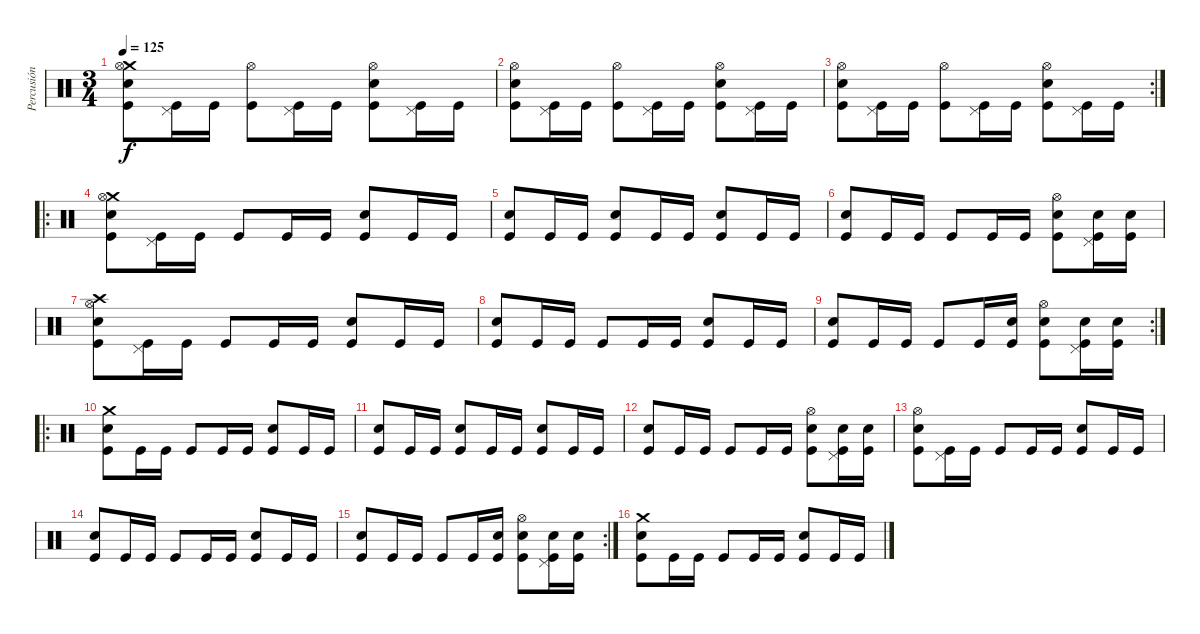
\track ("Percusión" "Percusión") {instrument percussion}
\staff {score}
\articulation defaults
\ts (3 4)
\tempo 125
\clef neutral
\ks c
("Crash medium (hit)" "Electric Snare (hit)" "Kick (hit)" "Hi-Hat (open)").8{dy f} ("Kick (hit)" "Pedal Hi-Hat (hit)").16 "Kick (hit)".16 ("Kick (hit)" "Hi-Hat (open)").8 ("Kick (hit)" "Pedal Hi-Hat (hit)").16 "Kick (hit)".16 ("Electric Snare (hit)" "Kick (hit)" "Hi-Hat (open)").8 ("Kick (hit)" "Pedal Hi-Hat (hit)").16 "Kick (hit)".16 |
("Electric Snare (hit)" "Kick (hit)" "Hi-Hat (open)").8 ("Kick (hit)" "Pedal Hi-Hat (hit)").16 "Kick (hit)".16 ("Kick (hit)" "Hi-Hat (open)").8 ("Kick (hit)" "Pedal Hi-Hat (hit)").16 "Kick (hit)".16 ("Electric Snare (hit)" "Kick (hit)" "Hi-Hat (open)").8 ("Kick (hit)" "Pedal Hi-Hat (hit)").16 "Kick (hit)".16 |
\rc 2
("Electric Snare (hit)" "Kick (hit)" "Hi-Hat (open)").8 ("Kick (hit)" "Pedal Hi-Hat (hit)").16 "Kick (hit)".16 ("Kick (hit)" "Hi-Hat (open)").8 ("Kick (hit)" "Pedal Hi-Hat (hit)").16 "Kick (hit)".16 ("Electric Snare (hit)" "Kick (hit)" "Hi-Hat (open)").8 ("Kick (hit)" "Pedal Hi-Hat (hit)").16 "Kick (hit)".16 |
\ro
("Crash medium (hit)" "Electric Snare (hit)" "Kick (hit)" "Hi-Hat (open)").8 ("Kick (hit)" "Pedal Hi-Hat (hit)").16 "Kick (hit)".16 "Kick (hit)".8 "Kick (hit)".16 "Kick (hit)".16 ("Electric Snare (hit)" "Kick (hit)").8 "Kick (hit)".16 "Kick (hit)".16 |
("Electric Snare (hit)" "Kick (hit)").8 "Kick (hit)".16 "Kick (hit)".16 ("Electric Snare (hit)" "Kick (hit)").8 "Kick (hit)".16 "Kick (hit)".16 ("Electric Snare (hit)" "Kick (hit)").8 "Kick (hit)".16 "Kick (hit)".16 |
("Electric Snare (hit)" "Kick (hit)").8 "Kick (hit)".16 "Kick (hit)".16 "Kick (hit)".8 "Kick (hit)".16 "Kick (hit)".16 ("Electric Snare (hit)" "Kick (hit)" "Hi-Hat (open)").8 ("Electric Snare (hit)" "Kick (hit)" "Pedal Hi-Hat (hit)").16 ("Electric Snare (hit)" "Kick (hit)").16 |
("Crash high (hit)" "Electric Snare (hit)" "Kick (hit)" "Hi-Hat (open)").8 ("Kick (hit)" "Pedal Hi-Hat (hit)").16 "Kick (hit)".16 "Kick (hit)".8 "Kick (hit)".16 "Kick (hit)".16 ("Electric Snare (hit)" "Kick (hit)").8 "Kick (hit)".16 "Kick (hit)".16 |
("Electric Snare (hit)" "Kick (hit)").8 "Kick (hit)".16 "Kick (hit)".16 "Kick (hit)".8 "Kick (hit)".16 "Kick (hit)".16 ("Electric Snare (hit)" "Kick (hit)").8 "Kick (hit)".16 "Kick (hit)".16 |
\rc 2
("Electric Snare (hit)" "Kick (hit)").8 "Kick (hit)".16 "Kick (hit)".16 "Kick (hit)".8 "Kick (hit)".16 ("Electric Snare (hit)" "Kick (hit)").16 ("Electric Snare (hit)" "Kick (hit)" "Hi-Hat (open)").8 ("Electric Snare (hit)" "Kick (hit)" "Pedal Hi-Hat (hit)").16 ("Electric Snare (hit)" "Kick (hit)").16 |
\ro
("Crash medium (hit)" "Electric Snare (hit)" "Kick (hit)").8 "Kick (hit)".16 "Kick (hit)".16 "Kick (hit)".8 "Kick (hit)".16 "Kick (hit)".16 ("Electric Snare (hit)" "Kick (hit)").8 "Kick (hit)".16 "Kick (hit)".16 |
("Electric Snare (hit)" "Kick (hit)").8 "Kick (hit)".16 "Kick (hit)".16 ("Electric Snare (hit)" "Kick (hit)").8 "Kick (hit)".16 "Kick (hit)".16 ("Electric Snare (hit)" "Kick (hit)").8 "Kick (hit)".16 "Kick (hit)".16 |
("Electric Snare (hit)" "Kick (hit)").8 "Kick (hit)".16 "Kick (hit)".16 "Kick (hit)".8 "Kick (hit)".16 "Kick (hit)".16 ("Electric Snare (hit)" "Kick (hit)" "Hi-Hat (open)").8 ("Electric Snare (hit)" "Kick (hit)" "Pedal Hi-Hat (hit)").16 ("Electric Snare (hit)" "Kick (hit)").16 |
("Electric Snare (hit)" "Kick (hit)" "Hi-Hat (open)").8 ("Kick (hit)" "Pedal Hi-Hat (hit)").16 "Kick (hit)".16 "Kick (hit)".8 "Kick (hit)".16 "Kick (hit)".16 ("Electric Snare (hit)" "Kick (hit)").8 "Kick (hit)".16 "Kick (hit)".16 |
("Electric Snare (hit)" "Kick (hit)").8 "Kick (hit)".16 "Kick (hit)".16 "Kick (hit)".8 "Kick (hit)".16 "Kick (hit)".16 ("Electric Snare (hit)" "Kick (hit)").8 "Kick (hit)".16 "Kick (hit)".16 |
\rc 2
("Electric Snare (hit)" "Kick (hit)").8 "Kick (hit)".16 "Kick (hit)".16 "Kick (hit)".8 "Kick (hit)".16 ("Electric Snare (hit)" "Kick (hit)").16 ("Electric Snare (hit)" "Kick (hit)" "Hi-Hat (open)").8 ("Electric Snare (hit)" "Kick (hit)" "Pedal Hi-Hat (hit)").16 ("Electric Snare (hit)" "Kick (hit)").16 |
("Crash medium (hit)" "Electric Snare (hit)" "Kick (hit)").8 "Kick (hit)".16 "Kick (hit)".16 "Kick (hit)".8 "Kick (hit)".16 "Kick (hit)".16 ("Electric Snare (hit)" "Kick (hit)").8 "Kick (hit)".16 "Kick (hit)".16
